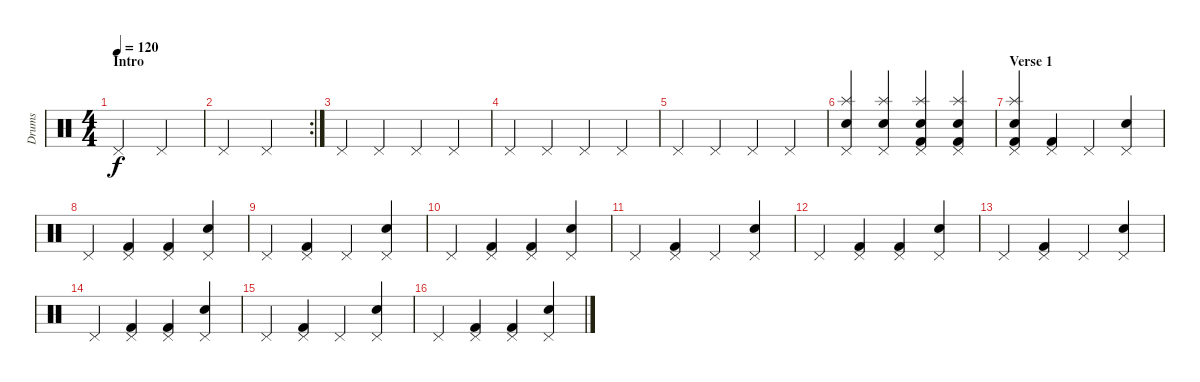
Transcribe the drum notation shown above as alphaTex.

\track ("Drums" "Drums") {instrument percussion}
\staff {score}
\articulation defaults
\ts (4 4)
\section ("" "Intro")
\tempo 120
\clef neutral
\ks c "Pedal Hi-Hat (hit)".2{dy f} "Pedal Hi-Hat (hit)".2
|
\rc 2 "Pedal Hi-Hat (hit)".2 "Pedal Hi-Hat (hit)".2
|
"Pedal Hi-Hat (hit)".4 "Pedal Hi-Hat (hit)".4 "Pedal Hi-Hat (hit)".4 "Pedal Hi-Hat (hit)".4 |
"Pedal Hi-Hat (hit)".4 "Pedal Hi-Hat (hit)".4 "Pedal Hi-Hat (hit)".4 "Pedal Hi-Hat (hit)".4 |
"Pedal Hi-Hat (hit)".4 "Pedal Hi-Hat (hit)".4 "Pedal Hi-Hat (hit)".4 "Pedal Hi-Hat (hit)".4 |
("Pedal Hi-Hat (hit)" "Splash (hit)" "Snare (hit) 2").4 ("Pedal Hi-Hat (hit)" "Splash (hit)" "Snare (hit) 2").4 ("Pedal Hi-Hat (hit)" "Splash (hit)" "Snare (hit) 2" "Kick (hit) 2").4 ("Pedal Hi-Hat (hit)" "Splash (hit)" "Snare (hit) 2" "Kick (hit) 2").4 |
\section ("" "Verse 1")
("Pedal Hi-Hat (hit)" "Splash (hit)" "Snare (hit) 2" "Kick (hit) 2").4 ("Pedal Hi-Hat (hit)" "Kick (hit) 2").4 "Pedal Hi-Hat (hit)".4 ("Pedal Hi-Hat (hit)" "Snare (hit) 2").4 |
"Pedal Hi-Hat (hit)".4 ("Pedal Hi-Hat (hit)" "Kick (hit) 2").4 ("Pedal Hi-Hat (hit)" "Kick (hit) 2").4 ("Pedal Hi-Hat (hit)" "Snare (hit) 2").4 |
"Pedal Hi-Hat (hit)".4 ("Pedal Hi-Hat (hit)" "Kick (hit) 2").4 "Pedal Hi-Hat (hit)".4 ("Pedal Hi-Hat (hit)" "Snare (hit) 2").4 |
"Pedal Hi-Hat (hit)".4 ("Pedal Hi-Hat (hit)" "Kick (hit) 2").4 ("Pedal Hi-Hat (hit)" "Kick (hit) 2").4 ("Pedal Hi-Hat (hit)" "Snare (hit) 2").4 |
"Pedal Hi-Hat (hit)".4 ("Pedal Hi-Hat (hit)" "Kick (hit) 2").4 "Pedal Hi-Hat (hit)".4 ("Pedal Hi-Hat (hit)" "Snare (hit) 2").4 |
"Pedal Hi-Hat (hit)".4 ("Pedal Hi-Hat (hit)" "Kick (hit) 2").4 ("Pedal Hi-Hat (hit)" "Kick (hit) 2").4 ("Pedal Hi-Hat (hit)" "Snare (hit) 2").4 |
"Pedal Hi-Hat (hit)".4 ("Pedal Hi-Hat (hit)" "Kick (hit) 2").4 "Pedal Hi-Hat (hit)".4 ("Pedal Hi-Hat (hit)" "Snare (hit) 2").4 |
"Pedal Hi-Hat (hit)".4 ("Pedal Hi-Hat (hit)" "Kick (hit) 2").4 ("Pedal Hi-Hat (hit)" "Kick (hit) 2").4 ("Pedal Hi-Hat (hit)" "Snare (hit) 2").4 |
"Pedal Hi-Hat (hit)".4 ("Pedal Hi-Hat (hit)" "Kick (hit) 2").4 "Pedal Hi-Hat (hit)".4 ("Pedal Hi-Hat (hit)" "Snare (hit) 2").4 |
"Pedal Hi-Hat (hit)".4 ("Pedal Hi-Hat (hit)" "Kick (hit) 2").4 ("Pedal Hi-Hat (hit)" "Kick (hit) 2").4 ("Pedal Hi-Hat (hit)" "Snare (hit) 2").4
